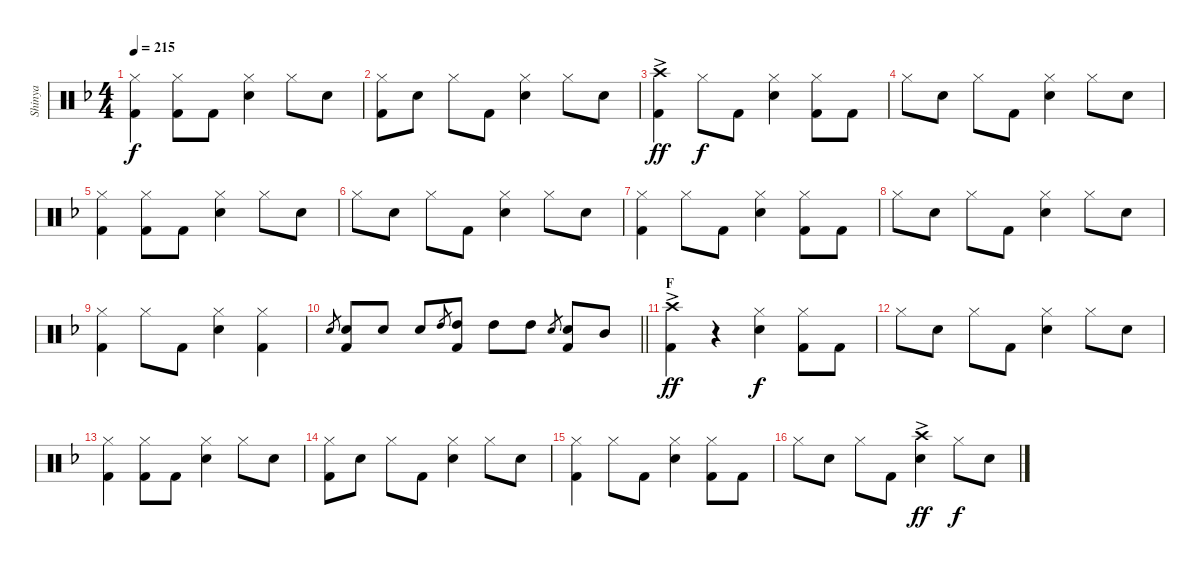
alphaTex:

\track ("Shinya" "Shinya") {instrument percussion}
\staff {score}
\articulation defaults
\ts (4 4)
\tempo 215
\clef neutral
\ks f
("Hi-Hat (closed)" "Kick (hit) 2").4{dy f} ("Hi-Hat (closed)" "Kick (hit) 2").8 "Kick (hit) 2".8 ("Hi-Hat (closed)" "Snare (hit) 2").4 "Hi-Hat (closed)".8 "Snare (hit) 2".8 |
("Hi-Hat (closed)" "Kick (hit) 2").8 "Snare (hit) 2".8 "Hi-Hat (closed)".8 "Kick (hit) 2".8 ("Hi-Hat (closed)" "Snare (hit) 2").4 "Hi-Hat (closed)".8 "Snare (hit) 2".8 |
("Crash high (hit)"{ac} "Kick (hit) 2").4{dy ff} "Hi-Hat (closed)".8{dy f} "Kick (hit) 2".8 ("Hi-Hat (closed)" "Snare (hit) 2").4 ("Hi-Hat (closed)" "Kick (hit) 2").8 "Kick (hit) 2".8 |
"Hi-Hat (closed)".8 "Snare (hit) 2".8 "Hi-Hat (closed)".8 "Kick (hit) 2".8 ("Hi-Hat (closed)" "Snare (hit) 2").4 "Hi-Hat (closed)".8 "Snare (hit) 2".8 |
("Hi-Hat (closed)" "Kick (hit) 2").4 ("Hi-Hat (closed)" "Kick (hit) 2").8 "Kick (hit) 2".8 ("Hi-Hat (closed)" "Snare (hit) 2").4 "Hi-Hat (closed)".8 "Snare (hit) 2".8 |
"Hi-Hat (closed)".8 "Snare (hit) 2".8 "Hi-Hat (closed)".8 "Kick (hit) 2".8 ("Hi-Hat (closed)" "Snare (hit) 2").4 "Hi-Hat (closed)".8 "Snare (hit) 2".8 |
("Hi-Hat (closed)" "Kick (hit) 2").4 "Hi-Hat (closed)".8 "Kick (hit) 2".8 ("Hi-Hat (closed)" "Snare (hit) 2").4 ("Hi-Hat (closed)" "Kick (hit) 2").8 "Kick (hit) 2".8 |
"Hi-Hat (closed)".8 "Snare (hit) 2".8 "Hi-Hat (closed)".8 "Kick (hit) 2".8 ("Hi-Hat (closed)" "Snare (hit) 2").4 "Hi-Hat (closed)".8 "Snare (hit) 2".8 |
("Hi-Hat (closed)" "Kick (hit) 2").4 "Hi-Hat (closed)".8 "Kick (hit) 2".8 ("Hi-Hat (closed)" "Snare (hit) 2").4 ("Hi-Hat (closed)" "Kick (hit) 2").4 |
\barLineRight lightlight "Snare (hit) 2".8{gr}
("Snare (hit) 2" "Kick (hit) 2").8 "Snare (hit) 2".8 "Snare (hit) 2".8 "High Tom (hit)".8{gr} ("High Tom (hit)" "Kick (hit) 2").8 "High Tom (hit)".8 "High Tom (hit)".8 "Snare (hit) 2".8{gr} ("Snare (hit) 2" "Kick (hit) 2").8 "Mid Tom (hit)".8 |
\section ("" "F")
("Crash high (hit)"{ac} "Kick (hit) 2").4{dy ff} r.4 ("Hi-Hat (closed)" "Snare (hit) 2").4{dy f} ("Hi-Hat (closed)" "Kick (hit) 2").8 "Kick (hit) 2".8 |
"Hi-Hat (closed)".8 "Snare (hit) 2".8 "Hi-Hat (closed)".8 "Kick (hit) 2".8 ("Hi-Hat (closed)" "Snare (hit) 2").4 "Hi-Hat (closed)".8 "Snare (hit) 2".8 |
("Hi-Hat (closed)" "Kick (hit) 2").4 ("Hi-Hat (closed)" "Kick (hit) 2").8 "Kick (hit) 2".8 ("Hi-Hat (closed)" "Snare (hit) 2").4 "Hi-Hat (closed)".8 "Snare (hit) 2".8 |
("Hi-Hat (closed)" "Kick (hit) 2").8 "Snare (hit) 2".8 "Hi-Hat (closed)".8 "Kick (hit) 2".8 ("Hi-Hat (closed)" "Snare (hit) 2").4 "Hi-Hat (closed)".8 "Snare (hit) 2".8 |
("Hi-Hat (closed)" "Kick (hit) 2").4 "Hi-Hat (closed)".8 "Kick (hit) 2".8 ("Hi-Hat (closed)" "Snare (hit) 2").4 ("Hi-Hat (closed)" "Kick (hit) 2").8 "Kick (hit) 2".8 |
"Hi-Hat (closed)".8 "Snare (hit) 2".8 "Hi-Hat (closed)".8 "Kick (hit) 2".8 ("Crash high (hit)"{ac} "Snare (hit) 2").4{dy ff} "Hi-Hat (closed)".8{dy f} "Snare (hit) 2".8
